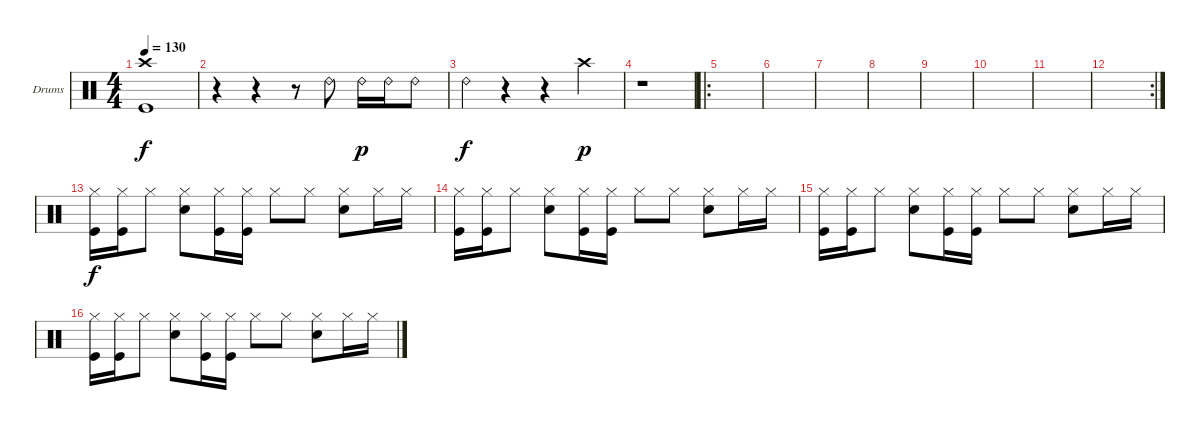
\bracketExtendMode groupsimilarinstruments
\firstSystemTrackNameOrientation horizontal
\otherSystemsTrackNameOrientation horizontal
\track ("Drumkit" "Drums") {instrument percussion}
\staff {score}
\articulation defaults
\ts (4 4)
\tempo 130
\clef neutral
\ks c
("Crash high (hit)" "Kick (hit)").1{dy f} |
r.4 r.4 r.8 "Ride (bell) 2".8 "Ride (bell) 2".16{dy p} "Ride (bell) 2".16 "Ride (bell) 2".8 |
"Ride (bell) 2".4{dy f} r.4 r.4 "Crash high (hit)".4{dy p} |
r.1 |
\ro
|
|
|
|
|
|
|
\rc 2
|
("Hi-Hat (closed)" "Kick (hit)").16{dy f} ("Hi-Hat (closed)" "Kick (hit)").16 "Hi-Hat (closed)".8 ("Hi-Hat (closed)" "Snare (hit) 2").8 ("Hi-Hat (closed)" "Kick (hit)").16 ("Hi-Hat (closed)" "Kick (hit)").16 "Hi-Hat (closed)".8 "Hi-Hat (closed)".8 ("Hi-Hat (closed)" "Snare (hit) 2").8 "Hi-Hat (closed)".16 "Hi-Hat (closed)".16 |
("Hi-Hat (closed)" "Kick (hit)").16 ("Hi-Hat (closed)" "Kick (hit)").16 "Hi-Hat (closed)".8 ("Hi-Hat (closed)" "Snare (hit) 2").8 ("Hi-Hat (closed)" "Kick (hit)").16 ("Hi-Hat (closed)" "Kick (hit)").16 "Hi-Hat (closed)".8 "Hi-Hat (closed)".8 ("Hi-Hat (closed)" "Snare (hit) 2").8 "Hi-Hat (closed)".16 "Hi-Hat (closed)".16 |
("Hi-Hat (closed)" "Kick (hit)").16 ("Hi-Hat (closed)" "Kick (hit)").16 "Hi-Hat (closed)".8 ("Hi-Hat (closed)" "Snare (hit) 2").8 ("Hi-Hat (closed)" "Kick (hit)").16 ("Hi-Hat (closed)" "Kick (hit)").16 "Hi-Hat (closed)".8 "Hi-Hat (closed)".8 ("Hi-Hat (closed)" "Snare (hit) 2").8 "Hi-Hat (closed)".16 "Hi-Hat (closed)".16 |
("Hi-Hat (closed)" "Kick (hit)").16 ("Hi-Hat (closed)" "Kick (hit)").16 "Hi-Hat (closed)".8 ("Hi-Hat (closed)" "Snare (hit) 2").8 ("Hi-Hat (closed)" "Kick (hit)").16 ("Hi-Hat (closed)" "Kick (hit)").16 "Hi-Hat (closed)".8 "Hi-Hat (closed)".8 ("Hi-Hat (closed)" "Snare (hit) 2").8 "Hi-Hat (closed)".16 "Hi-Hat (closed)".16
